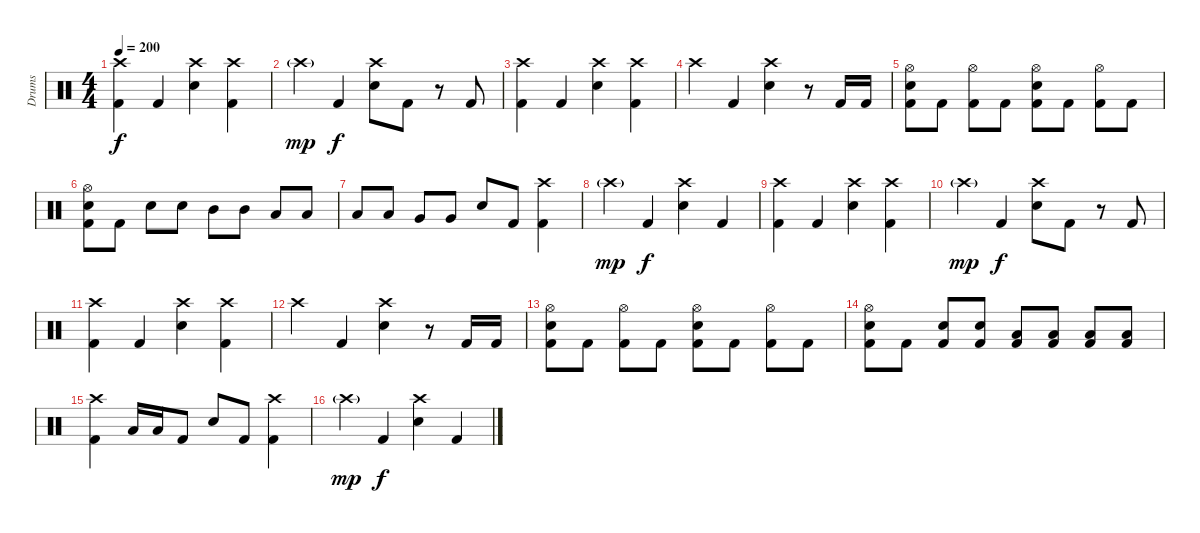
\track ("Drums" "Drums") {instrument percussion}
\staff {score}
\articulation defaults
\ts (4 4)
\tempo 200
\clef neutral
\ks c
("Crash high (hit)" "Kick (hit) 2").4{dy f} "Kick (hit) 2".4 ("Crash high (hit)" "Snare (hit) 2").4 ("Crash high (hit)" "Kick (hit) 2").4 |
"Crash high (hit)"{g}.4{dy mp} "Kick (hit) 2".4{dy f} ("Crash high (hit)" "Snare (hit) 2").8 "Kick (hit) 2".8 r.8 "Kick (hit) 2".8 |
("Crash high (hit)" "Kick (hit) 2").4 "Kick (hit) 2".4 ("Crash high (hit)" "Snare (hit) 2").4 ("Crash high (hit)" "Kick (hit) 2").4 |
"Crash high (hit)".4 "Kick (hit) 2".4 ("Crash high (hit)" "Snare (hit) 2").4 r.8 "Kick (hit) 2".16 "Kick (hit) 2".16 |
("Hi-Hat (open)" "Snare (hit) 2" "Kick (hit) 2").8 "Kick (hit) 2".8 ("Hi-Hat (open)" "Kick (hit) 2").8 "Kick (hit) 2".8 ("Hi-Hat (open)" "Snare (hit) 2" "Kick (hit) 2").8 "Kick (hit) 2".8 ("Hi-Hat (open)" "Kick (hit) 2").8 "Kick (hit) 2".8 |
("Hi-Hat (open)" "Snare (hit) 2" "Kick (hit) 2").8 "Kick (hit) 2".8 "Snare (hit) 2".8 "Snare (hit) 2".8 "Mid Tom (hit)".8 "Mid Tom (hit)".8 "Low Tom (hit)".8 "Low Tom (hit)".8 |
"Low Tom (hit)".8 "Low Tom (hit)".8 "Very Low Tom (hit)".8 "Very Low Tom (hit)".8 "Snare (hit) 2".8 "Kick (hit) 2".8 ("Crash high (hit)" "Kick (hit) 2").4 |
"Crash high (hit)"{g}.4{dy mp} "Kick (hit) 2".4{dy f} ("Crash high (hit)" "Snare (hit) 2").4 "Kick (hit) 2".4 |
("Crash high (hit)" "Kick (hit) 2").4 "Kick (hit) 2".4 ("Crash high (hit)" "Snare (hit) 2").4 ("Crash high (hit)" "Kick (hit) 2").4 |
"Crash high (hit)"{g}.4{dy mp} "Kick (hit) 2".4{dy f} ("Crash high (hit)" "Snare (hit) 2").8 "Kick (hit) 2".8 r.8 "Kick (hit) 2".8 |
("Crash high (hit)" "Kick (hit) 2").4 "Kick (hit) 2".4 ("Crash high (hit)" "Snare (hit) 2").4 ("Crash high (hit)" "Kick (hit) 2").4 |
"Crash high (hit)".4 "Kick (hit) 2".4 ("Crash high (hit)" "Snare (hit) 2").4 r.8 "Kick (hit) 2".16 "Kick (hit) 2".16 |
("Hi-Hat (open)" "Snare (hit) 2" "Kick (hit) 2").8 "Kick (hit) 2".8 ("Hi-Hat (open)" "Kick (hit) 2").8 "Kick (hit) 2".8 ("Hi-Hat (open)" "Snare (hit) 2" "Kick (hit) 2").8 "Kick (hit) 2".8 ("Hi-Hat (open)" "Kick (hit) 2").8 "Kick (hit) 2".8 |
("Hi-Hat (open)" "Snare (hit) 2" "Kick (hit) 2").8 "Kick (hit) 2".8 ("Snare (hit) 2" "Kick (hit) 2").8 ("Snare (hit) 2" "Kick (hit) 2").8 ("Low Tom (hit)" "Kick (hit) 2").8 ("Low Tom (hit)" "Kick (hit) 2").8 ("Low Tom (hit)" "Kick (hit) 2").8 ("Low Tom (hit)" "Kick (hit) 2").8 |
("Crash high (hit)" "Kick (hit) 2").4 "Low Tom (hit)".16 "Low Tom (hit)".16 "Kick (hit) 2".8 "Snare (hit) 2".8 "Kick (hit) 2".8 ("Crash high (hit)" "Kick (hit) 2").4 |
"Crash high (hit)"{g}.4{dy mp} "Kick (hit) 2".4{dy f} ("Crash high (hit)" "Snare (hit) 2").4 "Kick (hit) 2".4
